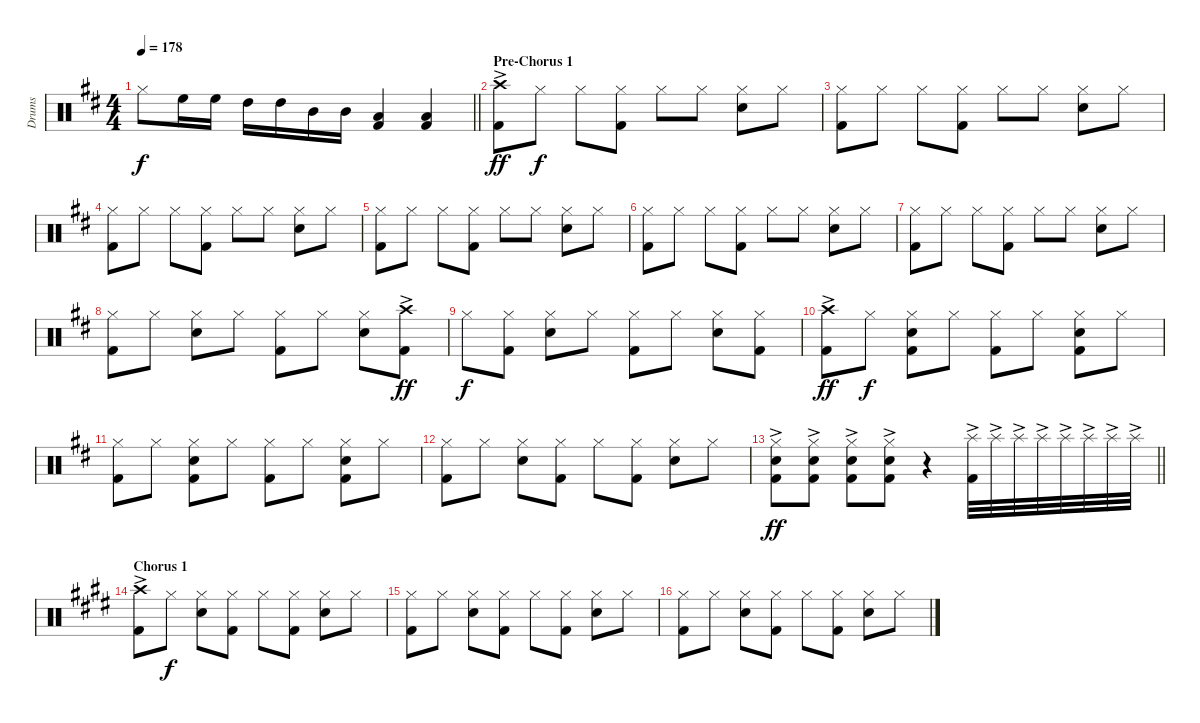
\track ("Drums" "Drums") {instrument percussion}
\staff {score}
\articulation defaults
\ts (4 4)
\tempo 178
\clef neutral
\barLineRight lightlight
\ks d "Hi-Hat (closed)".8{dy f} "High Floor Tom (hit)".16 "High Floor Tom (hit)".16 "High Tom (hit)".16 "High Tom (hit)".16 "Mid Tom (hit)".16 "Mid Tom (hit)".16
("Low Tom (hit)" "Kick (hit) 2").4 ("Low Floor Tom (hit)" "Kick (hit) 2").4 |
\section ("" "Pre-Chorus 1")
("Crash high (hit)"{ac} "Kick (hit) 2").8{dy ff} "Hi-Hat (closed)".8{dy f} "Hi-Hat (closed)".8 ("Hi-Hat (closed)" "Kick (hit) 2").8 "Hi-Hat (closed)".8 "Hi-Hat (closed)".8 ("Hi-Hat (closed)" "Electric Snare (hit)").8 "Hi-Hat (closed)".8 |
("Hi-Hat (closed)" "Kick (hit) 2").8 "Hi-Hat (closed)".8 "Hi-Hat (closed)".8 ("Hi-Hat (closed)" "Kick (hit) 2").8 "Hi-Hat (closed)".8 "Hi-Hat (closed)".8 ("Hi-Hat (closed)" "Electric Snare (hit)").8 "Hi-Hat (closed)".8 |
("Hi-Hat (closed)" "Kick (hit) 2").8 "Hi-Hat (closed)".8 "Hi-Hat (closed)".8 ("Hi-Hat (closed)" "Kick (hit) 2").8 "Hi-Hat (closed)".8 "Hi-Hat (closed)".8 ("Hi-Hat (closed)" "Electric Snare (hit)").8 "Hi-Hat (closed)".8 |
("Hi-Hat (closed)" "Kick (hit) 2").8 "Hi-Hat (closed)".8 "Hi-Hat (closed)".8 ("Hi-Hat (closed)" "Kick (hit) 2").8 "Hi-Hat (closed)".8 "Hi-Hat (closed)".8 ("Hi-Hat (closed)" "Electric Snare (hit)").8 "Hi-Hat (closed)".8 |
("Hi-Hat (closed)" "Kick (hit) 2").8 "Hi-Hat (closed)".8 "Hi-Hat (closed)".8 ("Hi-Hat (closed)" "Kick (hit) 2").8 "Hi-Hat (closed)".8 "Hi-Hat (closed)".8 ("Hi-Hat (closed)" "Electric Snare (hit)").8 "Hi-Hat (closed)".8 |
("Hi-Hat (closed)" "Kick (hit) 2").8 "Hi-Hat (closed)".8 "Hi-Hat (closed)".8 ("Hi-Hat (closed)" "Kick (hit) 2").8 "Hi-Hat (closed)".8 "Hi-Hat (closed)".8 ("Hi-Hat (closed)" "Electric Snare (hit)").8 "Hi-Hat (closed)".8 |
("Hi-Hat (closed)" "Kick (hit) 2").8 "Hi-Hat (closed)".8 ("Hi-Hat (closed)" "Electric Snare (hit)").8 "Hi-Hat (closed)".8 ("Hi-Hat (closed)" "Kick (hit) 2").8 "Hi-Hat (closed)".8 ("Hi-Hat (closed)" "Electric Snare (hit)").8 ("Crash high (hit)"{ac} "Kick (hit) 2").8{dy ff} |
"Hi-Hat (closed)".8{dy f} ("Hi-Hat (closed)" "Kick (hit) 2").8 ("Hi-Hat (closed)" "Electric Snare (hit)").8 "Hi-Hat (closed)".8 ("Hi-Hat (closed)" "Kick (hit) 2").8 "Hi-Hat (closed)".8 ("Hi-Hat (closed)" "Electric Snare (hit)").8 ("Hi-Hat (closed)" "Kick (hit) 2").8 |
("Crash high (hit)"{ac} "Kick (hit) 2").8{dy ff} "Hi-Hat (closed)".8{dy f} ("Hi-Hat (closed)" "Electric Snare (hit)" "Kick (hit) 2").8 "Hi-Hat (closed)".8 ("Hi-Hat (closed)" "Kick (hit) 2").8 "Hi-Hat (closed)".8 ("Hi-Hat (closed)" "Electric Snare (hit)" "Kick (hit) 2").8 "Hi-Hat (closed)".8 |
("Hi-Hat (closed)" "Kick (hit) 2").8 "Hi-Hat (closed)".8 ("Hi-Hat (closed)" "Electric Snare (hit)" "Kick (hit) 2").8 "Hi-Hat (closed)".8 ("Hi-Hat (closed)" "Kick (hit) 2").8 "Hi-Hat (closed)".8 ("Hi-Hat (closed)" "Electric Snare (hit)" "Kick (hit) 2").8 "Hi-Hat (closed)".8 |
("Hi-Hat (closed)" "Kick (hit) 2").8 "Hi-Hat (closed)".8 ("Hi-Hat (closed)" "Electric Snare (hit)").8 ("Hi-Hat (closed)" "Kick (hit) 2").8 "Hi-Hat (closed)".8 ("Hi-Hat (closed)" "Kick (hit) 2").8 ("Hi-Hat (closed)" "Electric Snare (hit)").8 "Hi-Hat (closed)".8 |
\barLineRight lightlight
("Hi-Hat (closed)"{ac} "Electric Snare (hit)"{ac} "Kick (hit) 2"{ac}).8{dy ff} ("Hi-Hat (closed)"{ac} "Electric Snare (hit)"{ac} "Kick (hit) 2"{ac}).8 ("Hi-Hat (closed)"{ac} "Electric Snare (hit)"{ac} "Kick (hit) 2"{ac}).8 ("Hi-Hat (closed)"{ac} "Electric Snare (hit)"{ac} "Kick (hit) 2"{ac}).8 r.4{volume 8} ("Splash (hit)"{ac} "Kick (hit) 2").32{volume 16} "Splash (hit)"{ac}.32 "Splash (hit)"{ac}.32 "Splash (hit)"{ac}.32 "Splash (hit)"{ac}.32 "Splash (hit)"{ac}.32 "Splash (hit)"{ac}.32 "Splash (hit)"{ac}.32 |
\section ("" "Chorus 1")
\ks e
("Crash high (hit)"{ac} "Kick (hit) 2").8 "Hi-Hat (closed)".8{dy f} ("Hi-Hat (closed)" "Electric Snare (hit)").8 ("Hi-Hat (closed)" "Kick (hit) 2").8 "Hi-Hat (closed)".8 ("Hi-Hat (closed)" "Kick (hit) 2").8 ("Hi-Hat (closed)" "Electric Snare (hit)").8 "Hi-Hat (closed)".8 |
("Hi-Hat (closed)" "Kick (hit) 2").8 "Hi-Hat (closed)".8 ("Hi-Hat (closed)" "Electric Snare (hit)").8 ("Hi-Hat (closed)" "Kick (hit) 2").8 "Hi-Hat (closed)".8 ("Hi-Hat (closed)" "Kick (hit) 2").8 ("Hi-Hat (closed)" "Electric Snare (hit)").8 "Hi-Hat (closed)".8 |
("Hi-Hat (closed)" "Kick (hit) 2").8 "Hi-Hat (closed)".8 ("Hi-Hat (closed)" "Electric Snare (hit)").8 ("Hi-Hat (closed)" "Kick (hit) 2").8 "Hi-Hat (closed)".8 ("Hi-Hat (closed)" "Kick (hit) 2").8 ("Hi-Hat (closed)" "Electric Snare (hit)").8 "Hi-Hat (closed)".8
